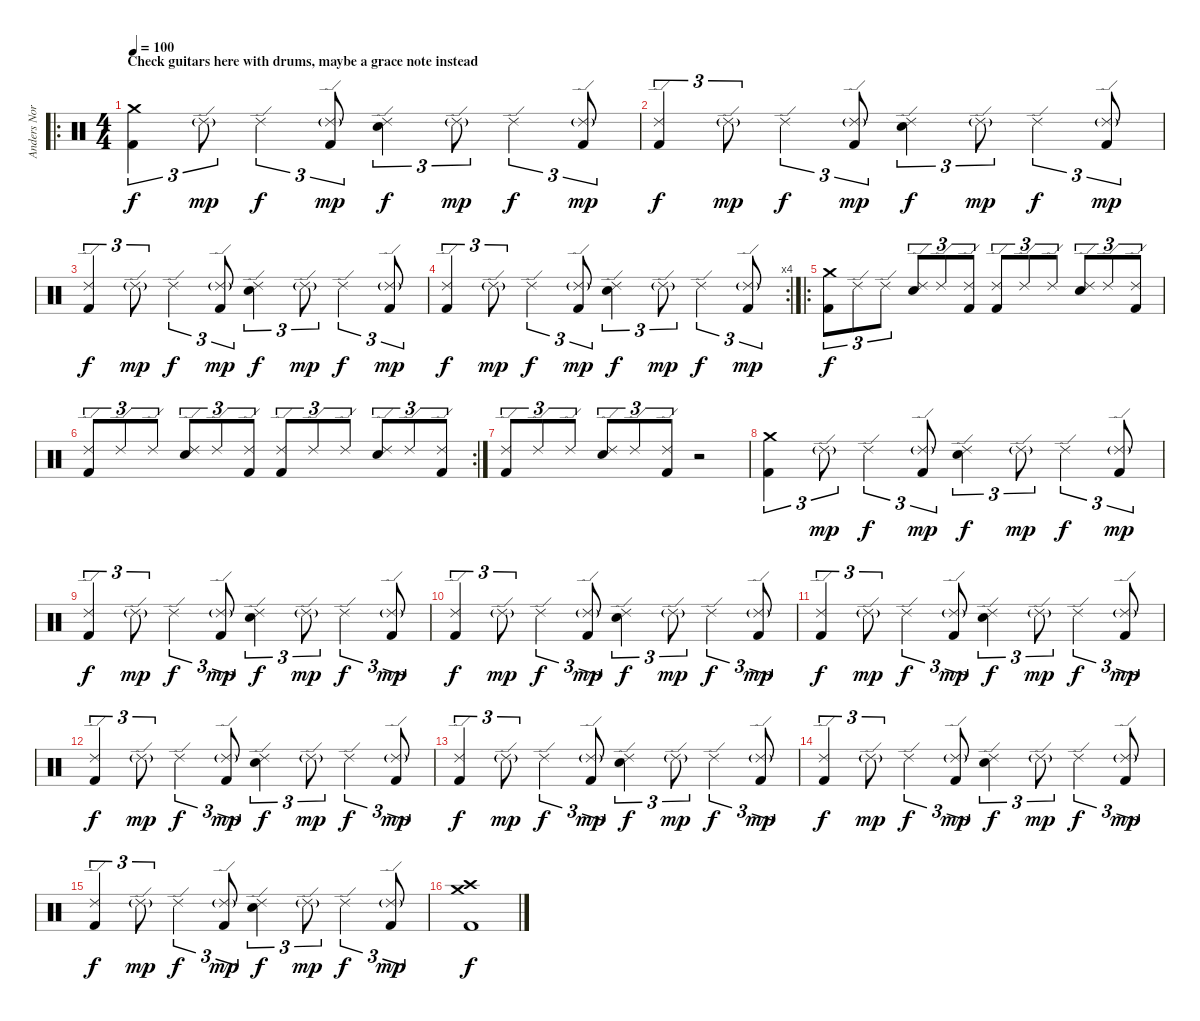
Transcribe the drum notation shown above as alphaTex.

\track ("Anders Nordin" "Anders Nor") {instrument percussion}
\staff {score}
\articulation defaults
\ro
\ts (4 4)
\section ("" "Check guitars here with drums, maybe a grace note instead")
\tempo 100
\clef neutral
\ks c
("Crash medium (hit)" "Kick (hit) 2").4{tu (3 2) dy f} "Ride (edge) 2"{g}.8{tu (3 2) dy mp} "Ride (edge) 2".4{tu (3 2) dy f} ("Ride (edge) 2"{g} "Kick (hit) 2").8{tu (3 2) dy mp} ("Ride (edge) 2" "Electric Snare (hit)").4{tu (3 2) dy f} "Ride (edge) 2"{g}.8{tu (3 2) dy mp} "Ride (edge) 2".4{tu (3 2) dy f} ("Ride (edge) 2"{g} "Kick (hit) 2").8{tu (3 2) dy mp} |
("Ride (edge) 2" "Kick (hit) 2").4{tu (3 2) dy f} "Ride (edge) 2"{g}.8{tu (3 2) dy mp} "Ride (edge) 2".4{tu (3 2) dy f} ("Ride (edge) 2"{g} "Kick (hit) 2").8{tu (3 2) dy mp} ("Ride (edge) 2" "Electric Snare (hit)").4{tu (3 2) dy f} "Ride (edge) 2"{g}.8{tu (3 2) dy mp} "Ride (edge) 2".4{tu (3 2) dy f} ("Ride (edge) 2"{g} "Kick (hit) 2").8{tu (3 2) dy mp} |
("Ride (edge) 2" "Kick (hit) 2").4{tu (3 2) dy f} "Ride (edge) 2"{g}.8{tu (3 2) dy mp} "Ride (edge) 2".4{tu (3 2) dy f} ("Ride (edge) 2"{g} "Kick (hit) 2").8{tu (3 2) dy mp} ("Ride (edge) 2" "Electric Snare (hit)").4{tu (3 2) dy f} "Ride (edge) 2"{g}.8{tu (3 2) dy mp} "Ride (edge) 2".4{tu (3 2) dy f} ("Ride (edge) 2"{g} "Kick (hit) 2").8{tu (3 2) dy mp} |
\rc 4
("Ride (edge) 2" "Kick (hit) 2").4{tu (3 2) dy f} "Ride (edge) 2"{g}.8{tu (3 2) dy mp} "Ride (edge) 2".4{tu (3 2) dy f} ("Ride (edge) 2"{g} "Kick (hit) 2").8{tu (3 2) dy mp} ("Ride (edge) 2" "Electric Snare (hit)").4{tu (3 2) dy f} "Ride (edge) 2"{g}.8{tu (3 2) dy mp} "Ride (edge) 2".4{tu (3 2) dy f} ("Ride (edge) 2"{g} "Kick (hit) 2").8{tu (3 2) dy mp} |
\ro
("Crash medium (hit)" "Kick (hit) 2").8{tu (3 2) dy f} "Ride (edge) 2".8{tu (3 2)} "Ride (edge) 2".8{tu (3 2)} ("Ride (edge) 2" "Electric Snare (hit)").8{tu (3 2)} "Ride (edge) 2".8{tu (3 2)} ("Ride (edge) 2" "Kick (hit) 2").8{tu (3 2)} ("Ride (edge) 2" "Kick (hit) 2").8{tu (3 2)} "Ride (edge) 2".8{tu (3 2)} "Ride (edge) 2".8{tu (3 2)} ("Ride (edge) 2" "Electric Snare (hit)").8{tu (3 2)} "Ride (edge) 2".8{tu (3 2)} ("Ride (edge) 2" "Kick (hit) 2").8{tu (3 2)} |
\rc 2
("Ride (edge) 2" "Kick (hit) 2").8{tu (3 2)} "Ride (edge) 2".8{tu (3 2)} "Ride (edge) 2".8{tu (3 2)} ("Ride (edge) 2" "Electric Snare (hit)").8{tu (3 2)} "Ride (edge) 2".8{tu (3 2)} ("Ride (edge) 2" "Kick (hit) 2").8{tu (3 2)} ("Ride (edge) 2" "Kick (hit) 2").8{tu (3 2)} "Ride (edge) 2".8{tu (3 2)} "Ride (edge) 2".8{tu (3 2)} ("Ride (edge) 2" "Electric Snare (hit)").8{tu (3 2)} "Ride (edge) 2".8{tu (3 2)} ("Ride (edge) 2" "Kick (hit) 2").8{tu (3 2)} |
("Ride (edge) 2" "Kick (hit) 2").8{tu (3 2)} "Ride (edge) 2".8{tu (3 2)} "Ride (edge) 2".8{tu (3 2)} ("Ride (edge) 2" "Electric Snare (hit)").8{tu (3 2)} "Ride (edge) 2".8{tu (3 2)} ("Ride (edge) 2" "Kick (hit) 2").8{tu (3 2)} r.2 |
("Crash medium (hit)" "Kick (hit) 2").4{tu (3 2)} "Ride (edge) 2"{g}.8{tu (3 2) dy mp} "Ride (edge) 2".4{tu (3 2) dy f} ("Ride (edge) 2"{g} "Kick (hit) 2").8{tu (3 2) dy mp} ("Ride (edge) 2" "Electric Snare (hit)").4{tu (3 2) dy f} "Ride (edge) 2"{g}.8{tu (3 2) dy mp} "Ride (edge) 2".4{tu (3 2) dy f} ("Ride (edge) 2"{g} "Kick (hit) 2").8{tu (3 2) dy mp} |
("Ride (edge) 2" "Kick (hit) 2").4{tu (3 2) dy f} "Ride (edge) 2"{g}.8{tu (3 2) dy mp} "Ride (edge) 2".4{tu (3 2) dy f} ("Ride (edge) 2"{g} "Kick (hit) 2").8{tu (3 2) dy mp} ("Ride (edge) 2" "Electric Snare (hit)").4{tu (3 2) dy f} "Ride (edge) 2"{g}.8{tu (3 2) dy mp} "Ride (edge) 2".4{tu (3 2) dy f} ("Ride (edge) 2"{g} "Kick (hit) 2").8{tu (3 2) dy mp} |
("Ride (edge) 2" "Kick (hit) 2").4{tu (3 2) dy f} "Ride (edge) 2"{g}.8{tu (3 2) dy mp} "Ride (edge) 2".4{tu (3 2) dy f} ("Ride (edge) 2"{g} "Kick (hit) 2").8{tu (3 2) dy mp} ("Ride (edge) 2" "Electric Snare (hit)").4{tu (3 2) dy f} "Ride (edge) 2"{g}.8{tu (3 2) dy mp} "Ride (edge) 2".4{tu (3 2) dy f} ("Ride (edge) 2"{g} "Kick (hit) 2").8{tu (3 2) dy mp} |
("Ride (edge) 2" "Kick (hit) 2").4{tu (3 2) dy f} "Ride (edge) 2"{g}.8{tu (3 2) dy mp} "Ride (edge) 2".4{tu (3 2) dy f} ("Ride (edge) 2"{g} "Kick (hit) 2").8{tu (3 2) dy mp} ("Ride (edge) 2" "Electric Snare (hit)").4{tu (3 2) dy f} "Ride (edge) 2"{g}.8{tu (3 2) dy mp} "Ride (edge) 2".4{tu (3 2) dy f} ("Ride (edge) 2"{g} "Kick (hit) 2").8{tu (3 2) dy mp} |
("Ride (edge) 2" "Kick (hit) 2").4{tu (3 2) dy f} "Ride (edge) 2"{g}.8{tu (3 2) dy mp} "Ride (edge) 2".4{tu (3 2) dy f} ("Ride (edge) 2"{g} "Kick (hit) 2").8{tu (3 2) dy mp} ("Ride (edge) 2" "Electric Snare (hit)").4{tu (3 2) dy f} "Ride (edge) 2"{g}.8{tu (3 2) dy mp} "Ride (edge) 2".4{tu (3 2) dy f} ("Ride (edge) 2"{g} "Kick (hit) 2").8{tu (3 2) dy mp} |
("Ride (edge) 2" "Kick (hit) 2").4{tu (3 2) dy f} "Ride (edge) 2"{g}.8{tu (3 2) dy mp} "Ride (edge) 2".4{tu (3 2) dy f} ("Ride (edge) 2"{g} "Kick (hit) 2").8{tu (3 2) dy mp} ("Ride (edge) 2" "Electric Snare (hit)").4{tu (3 2) dy f} "Ride (edge) 2"{g}.8{tu (3 2) dy mp} "Ride (edge) 2".4{tu (3 2) dy f} ("Ride (edge) 2"{g} "Kick (hit) 2").8{tu (3 2) dy mp} |
("Ride (edge) 2" "Kick (hit) 2").4{tu (3 2) dy f} "Ride (edge) 2"{g}.8{tu (3 2) dy mp} "Ride (edge) 2".4{tu (3 2) dy f} ("Ride (edge) 2"{g} "Kick (hit) 2").8{tu (3 2) dy mp} ("Ride (edge) 2" "Electric Snare (hit)").4{tu (3 2) dy f} "Ride (edge) 2"{g}.8{tu (3 2) dy mp} "Ride (edge) 2".4{tu (3 2) dy f} ("Ride (edge) 2"{g} "Kick (hit) 2").8{tu (3 2) dy mp} |
("Ride (edge) 2" "Kick (hit) 2").4{tu (3 2) dy f} "Ride (edge) 2"{g}.8{tu (3 2) dy mp} "Ride (edge) 2".4{tu (3 2) dy f} ("Ride (edge) 2"{g} "Kick (hit) 2").8{tu (3 2) dy mp} ("Ride (edge) 2" "Electric Snare (hit)").4{tu (3 2) dy f} "Ride (edge) 2"{g}.8{tu (3 2) dy mp} "Ride (edge) 2".4{tu (3 2) dy f} ("Ride (edge) 2"{g} "Kick (hit) 2").8{tu (3 2) dy mp} |
("Crash medium (hit)" "Crash high (hit)" "Kick (hit) 2").1{dy f}
